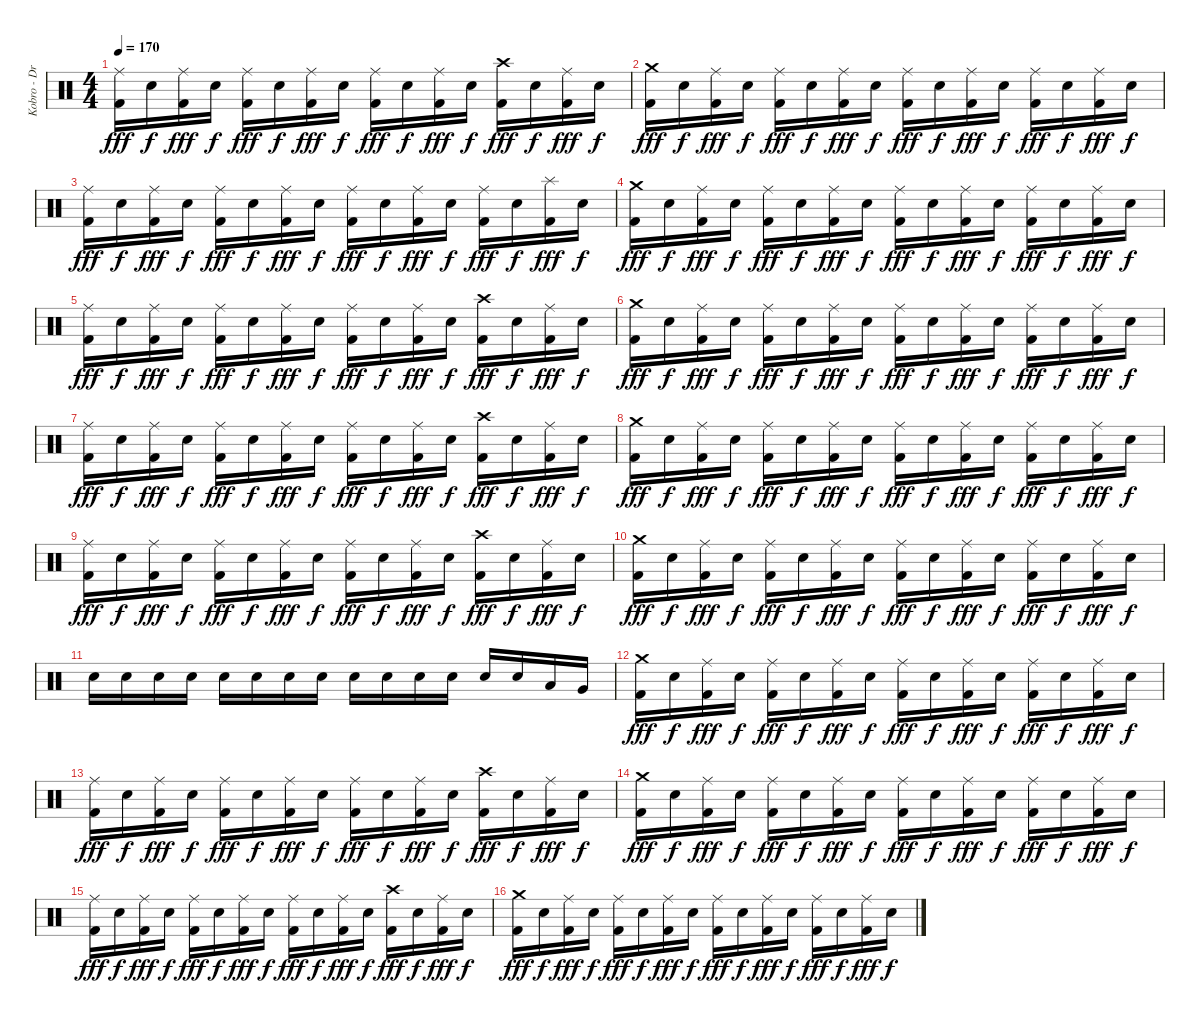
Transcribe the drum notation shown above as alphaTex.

\track ("Kobro - Drums + Percussion" "Kobro - Dr") {instrument percussion}
\staff {score}
\articulation defaults
\ts (4 4)
\tempo 170
\clef neutral
\ks c
("Ride (middle)" "Kick (hit) 2").16{dy fff} "Electric Snare (hit)".16{dy f} ("Ride (middle)" "Kick (hit) 2").16{dy fff} "Electric Snare (hit)".16{dy f} ("Ride (middle)" "Kick (hit) 2").16{dy fff} "Electric Snare (hit)".16{dy f} ("Ride (middle)" "Kick (hit) 2").16{dy fff} "Electric Snare (hit)".16{dy f} ("Ride (middle)" "Kick (hit) 2").16{dy fff} "Electric Snare (hit)".16{dy f} ("Ride (middle)" "Kick (hit) 2").16{dy fff} "Electric Snare (hit)".16{dy f} ("Crash high (hit)" "Kick (hit) 2").16{dy fff} "Electric Snare (hit)".16{dy f} ("Ride (middle)" "Kick (hit) 2").16{dy fff} "Electric Snare (hit)".16{dy f} |
("Crash medium (hit)" "Kick (hit) 2").16{dy fff} "Electric Snare (hit)".16{dy f} ("Ride (middle)" "Kick (hit) 2").16{dy fff} "Electric Snare (hit)".16{dy f} ("Ride (middle)" "Kick (hit) 2").16{dy fff} "Electric Snare (hit)".16{dy f} ("Ride (middle)" "Kick (hit) 2").16{dy fff} "Electric Snare (hit)".16{dy f} ("Ride (middle)" "Kick (hit) 2").16{dy fff} "Electric Snare (hit)".16{dy f} ("Ride (middle)" "Kick (hit) 2").16{dy fff} "Electric Snare (hit)".16{dy f} ("Ride (middle)" "Kick (hit) 2").16{dy fff} "Electric Snare (hit)".16{dy f} ("Ride (middle)" "Kick (hit) 2").16{dy fff} "Electric Snare (hit)".16{dy f} |
("Ride (middle)" "Kick (hit) 2").16{dy fff} "Electric Snare (hit)".16{dy f} ("Ride (middle)" "Kick (hit) 2").16{dy fff} "Electric Snare (hit)".16{dy f} ("Ride (middle)" "Kick (hit) 2").16{dy fff} "Electric Snare (hit)".16{dy f} ("Ride (middle)" "Kick (hit) 2").16{dy fff} "Electric Snare (hit)".16{dy f} ("Ride (middle)" "Kick (hit) 2").16{dy fff} "Electric Snare (hit)".16{dy f} ("Ride (middle)" "Kick (hit) 2").16{dy fff} "Electric Snare (hit)".16{dy f} ("Ride (middle)" "Kick (hit) 2").16{dy fff} "Electric Snare (hit)".16{dy f} ("Splash (hit)" "Kick (hit) 2").16{dy fff} "Electric Snare (hit)".16{dy f} |
("Crash medium (hit)" "Kick (hit) 2").16{dy fff} "Electric Snare (hit)".16{dy f} ("Ride (middle)" "Kick (hit) 2").16{dy fff} "Electric Snare (hit)".16{dy f} ("Ride (middle)" "Kick (hit) 2").16{dy fff} "Electric Snare (hit)".16{dy f} ("Ride (middle)" "Kick (hit) 2").16{dy fff} "Electric Snare (hit)".16{dy f} ("Ride (middle)" "Kick (hit) 2").16{dy fff} "Electric Snare (hit)".16{dy f} ("Ride (middle)" "Kick (hit) 2").16{dy fff} "Electric Snare (hit)".16{dy f} ("Ride (middle)" "Kick (hit) 2").16{dy fff} "Electric Snare (hit)".16{dy f} ("Ride (middle)" "Kick (hit) 2").16{dy fff} "Electric Snare (hit)".16{dy f} |
("Ride (middle)" "Kick (hit) 2").16{dy fff} "Electric Snare (hit)".16{dy f} ("Ride (middle)" "Kick (hit) 2").16{dy fff} "Electric Snare (hit)".16{dy f} ("Ride (middle)" "Kick (hit) 2").16{dy fff} "Electric Snare (hit)".16{dy f} ("Ride (middle)" "Kick (hit) 2").16{dy fff} "Electric Snare (hit)".16{dy f} ("Ride (middle)" "Kick (hit) 2").16{dy fff} "Electric Snare (hit)".16{dy f} ("Ride (middle)" "Kick (hit) 2").16{dy fff} "Electric Snare (hit)".16{dy f} ("Crash high (hit)" "Kick (hit) 2").16{dy fff} "Electric Snare (hit)".16{dy f} ("Ride (middle)" "Kick (hit) 2").16{dy fff} "Electric Snare (hit)".16{dy f} |
("Crash medium (hit)" "Kick (hit) 2").16{dy fff} "Electric Snare (hit)".16{dy f} ("Ride (middle)" "Kick (hit) 2").16{dy fff} "Electric Snare (hit)".16{dy f} ("Ride (middle)" "Kick (hit) 2").16{dy fff} "Electric Snare (hit)".16{dy f} ("Ride (middle)" "Kick (hit) 2").16{dy fff} "Electric Snare (hit)".16{dy f} ("Ride (middle)" "Kick (hit) 2").16{dy fff} "Electric Snare (hit)".16{dy f} ("Ride (middle)" "Kick (hit) 2").16{dy fff} "Electric Snare (hit)".16{dy f} ("Ride (middle)" "Kick (hit) 2").16{dy fff} "Electric Snare (hit)".16{dy f} ("Ride (middle)" "Kick (hit) 2").16{dy fff} "Electric Snare (hit)".16{dy f} |
("Ride (middle)" "Kick (hit) 2").16{dy fff} "Electric Snare (hit)".16{dy f} ("Ride (middle)" "Kick (hit) 2").16{dy fff} "Electric Snare (hit)".16{dy f} ("Ride (middle)" "Kick (hit) 2").16{dy fff} "Electric Snare (hit)".16{dy f} ("Ride (middle)" "Kick (hit) 2").16{dy fff} "Electric Snare (hit)".16{dy f} ("Ride (middle)" "Kick (hit) 2").16{dy fff} "Electric Snare (hit)".16{dy f} ("Ride (middle)" "Kick (hit) 2").16{dy fff} "Electric Snare (hit)".16{dy f} ("Crash high (hit)" "Kick (hit) 2").16{dy fff} "Electric Snare (hit)".16{dy f} ("Ride (middle)" "Kick (hit) 2").16{dy fff} "Electric Snare (hit)".16{dy f} |
("Crash medium (hit)" "Kick (hit) 2").16{dy fff} "Electric Snare (hit)".16{dy f} ("Ride (middle)" "Kick (hit) 2").16{dy fff} "Electric Snare (hit)".16{dy f} ("Ride (middle)" "Kick (hit) 2").16{dy fff} "Electric Snare (hit)".16{dy f} ("Ride (middle)" "Kick (hit) 2").16{dy fff} "Electric Snare (hit)".16{dy f} ("Ride (middle)" "Kick (hit) 2").16{dy fff} "Electric Snare (hit)".16{dy f} ("Ride (middle)" "Kick (hit) 2").16{dy fff} "Electric Snare (hit)".16{dy f} ("Ride (middle)" "Kick (hit) 2").16{dy fff} "Electric Snare (hit)".16{dy f} ("Ride (middle)" "Kick (hit) 2").16{dy fff} "Electric Snare (hit)".16{dy f} |
("Ride (middle)" "Kick (hit) 2").16{dy fff} "Electric Snare (hit)".16{dy f} ("Ride (middle)" "Kick (hit) 2").16{dy fff} "Electric Snare (hit)".16{dy f} ("Ride (middle)" "Kick (hit) 2").16{dy fff} "Electric Snare (hit)".16{dy f} ("Ride (middle)" "Kick (hit) 2").16{dy fff} "Electric Snare (hit)".16{dy f} ("Ride (middle)" "Kick (hit) 2").16{dy fff} "Electric Snare (hit)".16{dy f} ("Ride (middle)" "Kick (hit) 2").16{dy fff} "Electric Snare (hit)".16{dy f} ("Crash high (hit)" "Kick (hit) 2").16{dy fff} "Electric Snare (hit)".16{dy f} ("Ride (middle)" "Kick (hit) 2").16{dy fff} "Electric Snare (hit)".16{dy f} |
("Crash medium (hit)" "Kick (hit) 2").16{dy fff} "Electric Snare (hit)".16{dy f} ("Ride (middle)" "Kick (hit) 2").16{dy fff} "Electric Snare (hit)".16{dy f} ("Ride (middle)" "Kick (hit) 2").16{dy fff} "Electric Snare (hit)".16{dy f} ("Ride (middle)" "Kick (hit) 2").16{dy fff} "Electric Snare (hit)".16{dy f} ("Ride (middle)" "Kick (hit) 2").16{dy fff} "Electric Snare (hit)".16{dy f} ("Ride (middle)" "Kick (hit) 2").16{dy fff} "Electric Snare (hit)".16{dy f} ("Ride (middle)" "Kick (hit) 2").16{dy fff} "Electric Snare (hit)".16{dy f} ("Ride (middle)" "Kick (hit) 2").16{dy fff} "Electric Snare (hit)".16{dy f} |
"Electric Snare (hit)".16 "Electric Snare (hit)".16 "Electric Snare (hit)".16 "Electric Snare (hit)".16 "Electric Snare (hit)".16 "Electric Snare (hit)".16 "Electric Snare (hit)".16 "Electric Snare (hit)".16 "Electric Snare (hit)".16 "Electric Snare (hit)".16 "Electric Snare (hit)".16 "Electric Snare (hit)".16 "Electric Snare (hit)".16 "Electric Snare (hit)".16 "Low Tom (hit)".16 "Very Low Tom (hit)".16 |
("Crash medium (hit)" "Kick (hit) 2").16{dy fff} "Electric Snare (hit)".16{dy f} ("Ride (middle)" "Kick (hit) 2").16{dy fff} "Electric Snare (hit)".16{dy f} ("Ride (middle)" "Kick (hit) 2").16{dy fff} "Electric Snare (hit)".16{dy f} ("Ride (middle)" "Kick (hit) 2").16{dy fff} "Electric Snare (hit)".16{dy f} ("Ride (middle)" "Kick (hit) 2").16{dy fff} "Electric Snare (hit)".16{dy f} ("Ride (middle)" "Kick (hit) 2").16{dy fff} "Electric Snare (hit)".16{dy f} ("Ride (middle)" "Kick (hit) 2").16{dy fff} "Electric Snare (hit)".16{dy f} ("Ride (middle)" "Kick (hit) 2").16{dy fff} "Electric Snare (hit)".16{dy f} |
("Ride (middle)" "Kick (hit) 2").16{dy fff} "Electric Snare (hit)".16{dy f} ("Ride (middle)" "Kick (hit) 2").16{dy fff} "Electric Snare (hit)".16{dy f} ("Ride (middle)" "Kick (hit) 2").16{dy fff} "Electric Snare (hit)".16{dy f} ("Ride (middle)" "Kick (hit) 2").16{dy fff} "Electric Snare (hit)".16{dy f} ("Ride (middle)" "Kick (hit) 2").16{dy fff} "Electric Snare (hit)".16{dy f} ("Ride (middle)" "Kick (hit) 2").16{dy fff} "Electric Snare (hit)".16{dy f} ("Crash high (hit)" "Kick (hit) 2").16{dy fff} "Electric Snare (hit)".16{dy f} ("Ride (middle)" "Kick (hit) 2").16{dy fff} "Electric Snare (hit)".16{dy f} |
("Crash medium (hit)" "Kick (hit) 2").16{dy fff} "Electric Snare (hit)".16{dy f} ("Ride (middle)" "Kick (hit) 2").16{dy fff} "Electric Snare (hit)".16{dy f} ("Ride (middle)" "Kick (hit) 2").16{dy fff} "Electric Snare (hit)".16{dy f} ("Ride (middle)" "Kick (hit) 2").16{dy fff} "Electric Snare (hit)".16{dy f} ("Ride (middle)" "Kick (hit) 2").16{dy fff} "Electric Snare (hit)".16{dy f} ("Ride (middle)" "Kick (hit) 2").16{dy fff} "Electric Snare (hit)".16{dy f} ("Ride (middle)" "Kick (hit) 2").16{dy fff} "Electric Snare (hit)".16{dy f} ("Ride (middle)" "Kick (hit) 2").16{dy fff} "Electric Snare (hit)".16{dy f} |
("Ride (middle)" "Kick (hit) 2").16{dy fff} "Electric Snare (hit)".16{dy f} ("Ride (middle)" "Kick (hit) 2").16{dy fff} "Electric Snare (hit)".16{dy f} ("Ride (middle)" "Kick (hit) 2").16{dy fff} "Electric Snare (hit)".16{dy f} ("Ride (middle)" "Kick (hit) 2").16{dy fff} "Electric Snare (hit)".16{dy f} ("Ride (middle)" "Kick (hit) 2").16{dy fff} "Electric Snare (hit)".16{dy f} ("Ride (middle)" "Kick (hit) 2").16{dy fff} "Electric Snare (hit)".16{dy f} ("Crash high (hit)" "Kick (hit) 2").16{dy fff} "Electric Snare (hit)".16{dy f} ("Ride (middle)" "Kick (hit) 2").16{dy fff} "Electric Snare (hit)".16{dy f} |
("Crash medium (hit)" "Kick (hit) 2").16{dy fff} "Electric Snare (hit)".16{dy f} ("Ride (middle)" "Kick (hit) 2").16{dy fff} "Electric Snare (hit)".16{dy f} ("Ride (middle)" "Kick (hit) 2").16{dy fff} "Electric Snare (hit)".16{dy f} ("Ride (middle)" "Kick (hit) 2").16{dy fff} "Electric Snare (hit)".16{dy f} ("Ride (middle)" "Kick (hit) 2").16{dy fff} "Electric Snare (hit)".16{dy f} ("Ride (middle)" "Kick (hit) 2").16{dy fff} "Electric Snare (hit)".16{dy f} ("Ride (middle)" "Kick (hit) 2").16{dy fff} "Electric Snare (hit)".16{dy f} ("Ride (middle)" "Kick (hit) 2").16{dy fff} "Electric Snare (hit)".16{dy f}
